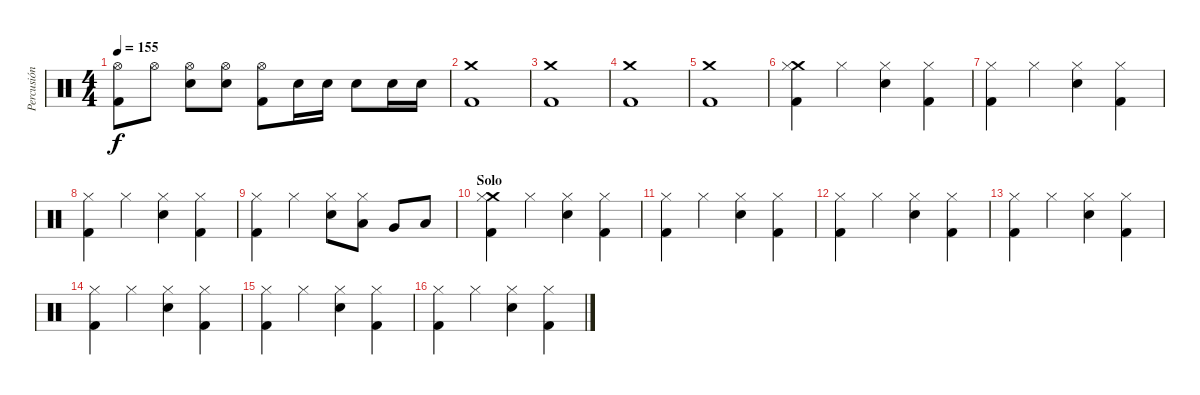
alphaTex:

\track ("Percusión" "Percusión") {instrument percussion}
\staff {score}
\articulation defaults
\ts (4 4)
\tempo 155
\clef neutral
\ks c
("Hi-Hat (open)" "Kick (hit) 2").8{dy f} "Hi-Hat (open)".8 ("Hi-Hat (open)" "Electric Snare (hit)").8 ("Hi-Hat (open)" "Electric Snare (hit)").8 ("Hi-Hat (open)" "Kick (hit) 2").8 "Electric Snare (hit)".16 "Electric Snare (hit)".16 "Electric Snare (hit)".8 "Electric Snare (hit)".16 "Electric Snare (hit)".16 |
("Crash medium (hit)" "Kick (hit) 2").1 |
("Crash medium (hit)" "Kick (hit) 2").1 |
("Crash medium (hit)" "Kick (hit) 2").1 |
("Crash medium (hit)" "Kick (hit) 2").1 |
("Crash medium (hit)" "Hi-Hat (closed)" "Kick (hit) 2").4 "Hi-Hat (closed)".4 ("Hi-Hat (closed)" "Electric Snare (hit)").4 ("Hi-Hat (closed)" "Kick (hit) 2").4 |
("Hi-Hat (closed)" "Kick (hit) 2").4 "Hi-Hat (closed)".4 ("Hi-Hat (closed)" "Electric Snare (hit)").4 ("Hi-Hat (closed)" "Kick (hit) 2").4 |
("Hi-Hat (closed)" "Kick (hit) 2").4 "Hi-Hat (closed)".4 ("Hi-Hat (closed)" "Electric Snare (hit)").4 ("Hi-Hat (closed)" "Kick (hit) 2").4 |
("Hi-Hat (closed)" "Kick (hit) 2").4 "Hi-Hat (closed)".4 ("Hi-Hat (closed)" "Electric Snare (hit)").8 ("Hi-Hat (closed)" "Low Tom (hit)").8 "Very Low Tom (hit)".8 "Low Floor Tom (hit)".8 |
\section ("" "Solo")
("Crash medium (hit)" "Hi-Hat (closed)" "Kick (hit) 2").4 "Hi-Hat (closed)".4 ("Hi-Hat (closed)" "Electric Snare (hit)").4 ("Hi-Hat (closed)" "Kick (hit) 2").4 |
("Hi-Hat (closed)" "Kick (hit) 2").4 "Hi-Hat (closed)".4 ("Hi-Hat (closed)" "Electric Snare (hit)").4 ("Hi-Hat (closed)" "Kick (hit) 2").4 |
("Hi-Hat (closed)" "Kick (hit) 2").4 "Hi-Hat (closed)".4 ("Hi-Hat (closed)" "Electric Snare (hit)").4 ("Hi-Hat (closed)" "Kick (hit) 2").4 |
("Hi-Hat (closed)" "Kick (hit) 2").4 "Hi-Hat (closed)".4 ("Hi-Hat (closed)" "Electric Snare (hit)").4 ("Hi-Hat (closed)" "Kick (hit) 2").4 |
("Hi-Hat (closed)" "Kick (hit) 2").4 "Hi-Hat (closed)".4 ("Hi-Hat (closed)" "Electric Snare (hit)").4 ("Hi-Hat (closed)" "Kick (hit) 2").4 |
("Hi-Hat (closed)" "Kick (hit) 2").4 "Hi-Hat (closed)".4 ("Hi-Hat (closed)" "Electric Snare (hit)").4 ("Hi-Hat (closed)" "Kick (hit) 2").4 |
("Hi-Hat (closed)" "Kick (hit) 2").4 "Hi-Hat (closed)".4 ("Hi-Hat (closed)" "Electric Snare (hit)").4 ("Hi-Hat (closed)" "Kick (hit) 2").4
